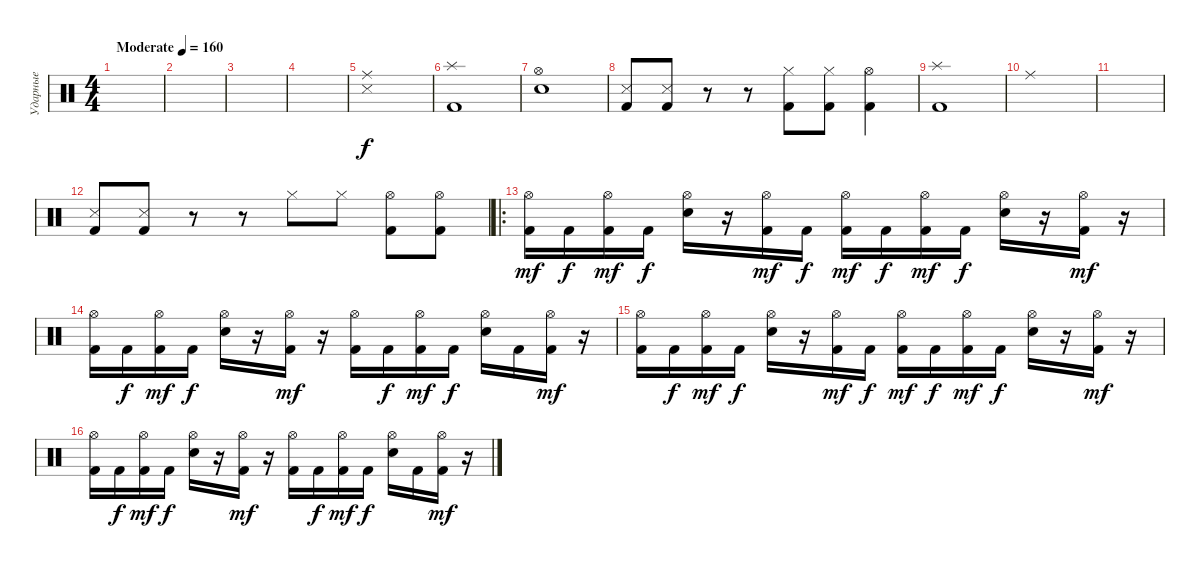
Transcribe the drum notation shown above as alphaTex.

\track ("Ударные" "Ударные") {instrument percussion}
\staff {score}
\articulation defaults
\ts (4 4)
\tempo (160 "Moderate")
\clef neutral
\ks c
|
|
|
|
("Ride (middle)" "Snare (side stick) 3").1 |
("Splash (hit)" "Kick (hit) 2").1 |
("Hi-Hat (open)" "Electric Snare (hit)").1 |
("Snare (side stick) 3" "Kick (hit) 2").8 ("Snare (side stick) 3" "Kick (hit) 2").8 r.8 r.8 ("Hi-Hat (closed)" "Kick (hit) 2").8 ("Hi-Hat (closed)" "Kick (hit) 2").8 ("Hi-Hat (open)" "Kick (hit) 2").4 |
("Splash (hit)" "Kick (hit) 2").1 |
"Ride (middle)".1 |
|
("Snare (side stick) 3" "Kick (hit) 2").8 ("Snare (side stick) 3" "Kick (hit) 2").8 r.8 r.8 "Hi-Hat (closed)".8 "Hi-Hat (closed)".8 ("Hi-Hat (open)" "Kick (hit) 2").8 ("Hi-Hat (open)" "Kick (hit) 2").8 |
\ro
("Hi-Hat (open)" "Kick (hit) 2").16{dy mf} "Kick (hit) 2".16{dy f} ("Hi-Hat (open)" "Kick (hit) 2").16{dy mf} "Kick (hit) 2".16{dy f} ("Hi-Hat (open)" "Electric Snare (hit)").16 r.16 ("Hi-Hat (open)" "Kick (hit) 2").16{dy mf} "Kick (hit) 2".16{dy f} ("Hi-Hat (open)" "Kick (hit) 2").16{dy mf} "Kick (hit) 2".16{dy f} ("Hi-Hat (open)" "Kick (hit) 2").16{dy mf} "Kick (hit) 2".16{dy f} ("Hi-Hat (open)" "Electric Snare (hit)").16 r.16 ("Hi-Hat (open)" "Kick (hit) 2").16{dy mf} r.16 |
("Hi-Hat (open)" "Kick (hit) 2").16 "Kick (hit) 2".16{dy f} ("Hi-Hat (open)" "Kick (hit) 2").16{dy mf} "Kick (hit) 2".16{dy f} ("Hi-Hat (open)" "Electric Snare (hit)").16 r.16 ("Hi-Hat (open)" "Kick (hit) 2").16{dy mf} r.16 ("Hi-Hat (open)" "Kick (hit) 2").16 "Kick (hit) 2".16{dy f} ("Hi-Hat (open)" "Kick (hit) 2").16{dy mf} "Kick (hit) 2".16{dy f} ("Hi-Hat (open)" "Electric Snare (hit)").16 "Kick (hit) 2".16 ("Hi-Hat (open)" "Kick (hit) 2").16{dy mf} r.16 |
("Hi-Hat (open)" "Kick (hit) 2").16 "Kick (hit) 2".16{dy f} ("Hi-Hat (open)" "Kick (hit) 2").16{dy mf} "Kick (hit) 2".16{dy f} ("Hi-Hat (open)" "Electric Snare (hit)").16 r.16 ("Hi-Hat (open)" "Kick (hit) 2").16{dy mf} "Kick (hit) 2".16{dy f} ("Hi-Hat (open)" "Kick (hit) 2").16{dy mf} "Kick (hit) 2".16{dy f} ("Hi-Hat (open)" "Kick (hit) 2").16{dy mf} "Kick (hit) 2".16{dy f} ("Hi-Hat (open)" "Electric Snare (hit)").16 r.16 ("Hi-Hat (open)" "Kick (hit) 2").16{dy mf} r.16 |
("Hi-Hat (open)" "Kick (hit) 2").16 "Kick (hit) 2".16{dy f} ("Hi-Hat (open)" "Kick (hit) 2").16{dy mf} "Kick (hit) 2".16{dy f} ("Hi-Hat (open)" "Electric Snare (hit)").16 r.16 ("Hi-Hat (open)" "Kick (hit) 2").16{dy mf} r.16 ("Hi-Hat (open)" "Kick (hit) 2").16 "Kick (hit) 2".16{dy f} ("Hi-Hat (open)" "Kick (hit) 2").16{dy mf} "Kick (hit) 2".16{dy f} ("Hi-Hat (open)" "Electric Snare (hit)").16 "Kick (hit) 2".16 ("Hi-Hat (open)" "Kick (hit) 2").16{dy mf} r.16
